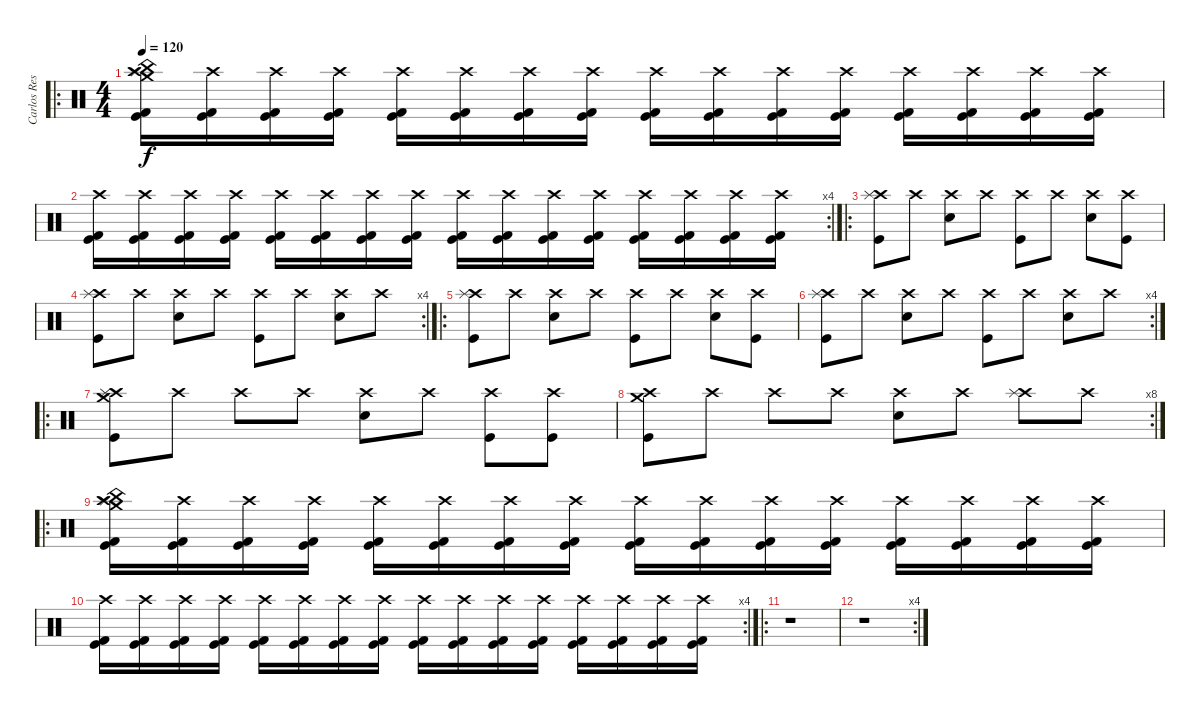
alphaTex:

\track ("Carlos Restrepo" "Carlos Res") {instrument percussion}
\staff {score}
\articulation defaults
\ro
\ts (4 4)
\tempo 120
\clef neutral
\ks c
("Crash high (hit)" "Splash (hit)" "Kick (hit) 2" "Crash medium (hit)" "China (hit)" "Kick (hit)").16{dy f} ("Crash high (hit)" "Kick (hit) 2" "Kick (hit)").16 ("Crash high (hit)" "Kick (hit) 2" "Kick (hit)").16 ("Crash high (hit)" "Kick (hit) 2" "Kick (hit)").16 ("Crash high (hit)" "Kick (hit) 2" "Kick (hit)").16 ("Crash high (hit)" "Kick (hit) 2" "Kick (hit)").16 ("Crash high (hit)" "Kick (hit) 2" "Kick (hit)").16 ("Crash high (hit)" "Kick (hit) 2" "Kick (hit)").16 ("Crash high (hit)" "Kick (hit) 2" "Kick (hit)").16 ("Crash high (hit)" "Kick (hit) 2" "Kick (hit)").16 ("Crash high (hit)" "Kick (hit) 2" "Kick (hit)").16 ("Crash high (hit)" "Kick (hit) 2" "Kick (hit)").16 ("Crash high (hit)" "Kick (hit) 2" "Kick (hit)").16 ("Crash high (hit)" "Kick (hit) 2" "Kick (hit)").16 ("Crash high (hit)" "Kick (hit) 2" "Kick (hit)").16 ("Crash high (hit)" "Kick (hit) 2" "Kick (hit)").16 |
\rc 4
("Crash high (hit)" "Kick (hit) 2" "Kick (hit)").16 ("Crash high (hit)" "Kick (hit) 2" "Kick (hit)").16 ("Crash high (hit)" "Kick (hit) 2" "Kick (hit)").16 ("Crash high (hit)" "Kick (hit) 2" "Kick (hit)").16 ("Crash high (hit)" "Kick (hit) 2" "Kick (hit)").16 ("Crash high (hit)" "Kick (hit) 2" "Kick (hit)").16 ("Crash high (hit)" "Kick (hit) 2" "Kick (hit)").16 ("Crash high (hit)" "Kick (hit) 2" "Kick (hit)").16 ("Crash high (hit)" "Kick (hit) 2" "Kick (hit)").16 ("Crash high (hit)" "Kick (hit) 2" "Kick (hit)").16 ("Crash high (hit)" "Kick (hit) 2" "Kick (hit)").16 ("Crash high (hit)" "Kick (hit) 2" "Kick (hit)").16 ("Crash high (hit)" "Kick (hit) 2" "Kick (hit)").16 ("Crash high (hit)" "Kick (hit) 2" "Kick (hit)").16 ("Crash high (hit)" "Kick (hit) 2" "Kick (hit)").16 ("Crash high (hit)" "Kick (hit) 2" "Kick (hit)").16 |
\ro
("Crash high (hit)" "Splash (hit)" "Kick (hit)").8 "Crash high (hit)".8 ("Crash high (hit)" "Snare (hit) 2").8 "Crash high (hit)".8 ("Crash high (hit)" "Kick (hit)").8 "Crash high (hit)".8 ("Crash high (hit)" "Snare (hit) 2").8 ("Crash high (hit)" "Kick (hit)").8 |
\rc 4
("Crash high (hit)" "Splash (hit)" "Kick (hit)").8 "Crash high (hit)".8 ("Crash high (hit)" "Snare (hit) 2").8 "Crash high (hit)".8 ("Crash high (hit)" "Kick (hit)").8 "Crash high (hit)".8 ("Crash high (hit)" "Snare (hit) 2").8 "Crash high (hit)".8 |
\ro
("Crash high (hit)" "Splash (hit)" "Kick (hit)").8 "Crash high (hit)".8 ("Crash high (hit)" "Snare (hit) 2").8 "Crash high (hit)".8 ("Crash high (hit)" "Kick (hit)").8 "Crash high (hit)".8 ("Crash high (hit)" "Snare (hit) 2").8 ("Crash high (hit)" "Kick (hit)").8 |
\rc 4
("Crash high (hit)" "Splash (hit)" "Kick (hit)").8 "Crash high (hit)".8 ("Crash high (hit)" "Snare (hit) 2").8 "Crash high (hit)".8 ("Crash high (hit)" "Kick (hit)").8 "Crash high (hit)".8 ("Crash high (hit)" "Snare (hit) 2").8 "Crash high (hit)".8 |
\ro
("Crash high (hit)" "Crash medium (hit)" "Splash (hit)" "Kick (hit)").8 "Crash high (hit)".8 "Crash high (hit)".8 "Crash high (hit)".8 ("Crash high (hit)" "Snare (hit) 2").8 "Crash high (hit)".8 ("Crash high (hit)" "Kick (hit)").8 ("Crash high (hit)" "Kick (hit)").8 |
\rc 8
("Crash high (hit)" "Crash medium (hit)" "Kick (hit)").8 "Crash high (hit)".8 "Crash high (hit)".8 "Crash high (hit)".8 ("Crash high (hit)" "Snare (hit) 2").8 "Crash high (hit)".8 ("Crash high (hit)" "Splash (hit)").8 "Crash high (hit)".8 |
\ro
("Crash high (hit)" "Splash (hit)" "Kick (hit) 2" "Crash medium (hit)" "China (hit)" "Kick (hit)").16 ("Crash high (hit)" "Kick (hit) 2" "Kick (hit)").16 ("Crash high (hit)" "Kick (hit) 2" "Kick (hit)").16 ("Crash high (hit)" "Kick (hit) 2" "Kick (hit)").16 ("Crash high (hit)" "Kick (hit) 2" "Kick (hit)").16 ("Crash high (hit)" "Kick (hit) 2" "Kick (hit)").16 ("Crash high (hit)" "Kick (hit) 2" "Kick (hit)").16 ("Crash high (hit)" "Kick (hit) 2" "Kick (hit)").16 ("Crash high (hit)" "Kick (hit) 2" "Kick (hit)").16 ("Crash high (hit)" "Kick (hit) 2" "Kick (hit)").16 ("Crash high (hit)" "Kick (hit) 2" "Kick (hit)").16 ("Crash high (hit)" "Kick (hit) 2" "Kick (hit)").16 ("Crash high (hit)" "Kick (hit) 2" "Kick (hit)").16 ("Crash high (hit)" "Kick (hit) 2" "Kick (hit)").16 ("Crash high (hit)" "Kick (hit) 2" "Kick (hit)").16 ("Crash high (hit)" "Kick (hit) 2" "Kick (hit)").16 |
\rc 4
("Crash high (hit)" "Kick (hit) 2" "Kick (hit)").16 ("Crash high (hit)" "Kick (hit) 2" "Kick (hit)").16 ("Crash high (hit)" "Kick (hit) 2" "Kick (hit)").16 ("Crash high (hit)" "Kick (hit) 2" "Kick (hit)").16 ("Crash high (hit)" "Kick (hit) 2" "Kick (hit)").16 ("Crash high (hit)" "Kick (hit) 2" "Kick (hit)").16 ("Crash high (hit)" "Kick (hit) 2" "Kick (hit)").16 ("Crash high (hit)" "Kick (hit) 2" "Kick (hit)").16 ("Crash high (hit)" "Kick (hit) 2" "Kick (hit)").16 ("Crash high (hit)" "Kick (hit) 2" "Kick (hit)").16 ("Crash high (hit)" "Kick (hit) 2" "Kick (hit)").16 ("Crash high (hit)" "Kick (hit) 2" "Kick (hit)").16 ("Crash high (hit)" "Kick (hit) 2" "Kick (hit)").16 ("Crash high (hit)" "Kick (hit) 2" "Kick (hit)").16 ("Crash high (hit)" "Kick (hit) 2" "Kick (hit)").16 ("Crash high (hit)" "Kick (hit) 2" "Kick (hit)").16 |
\ro
r.1 |
\rc 4
r.1
